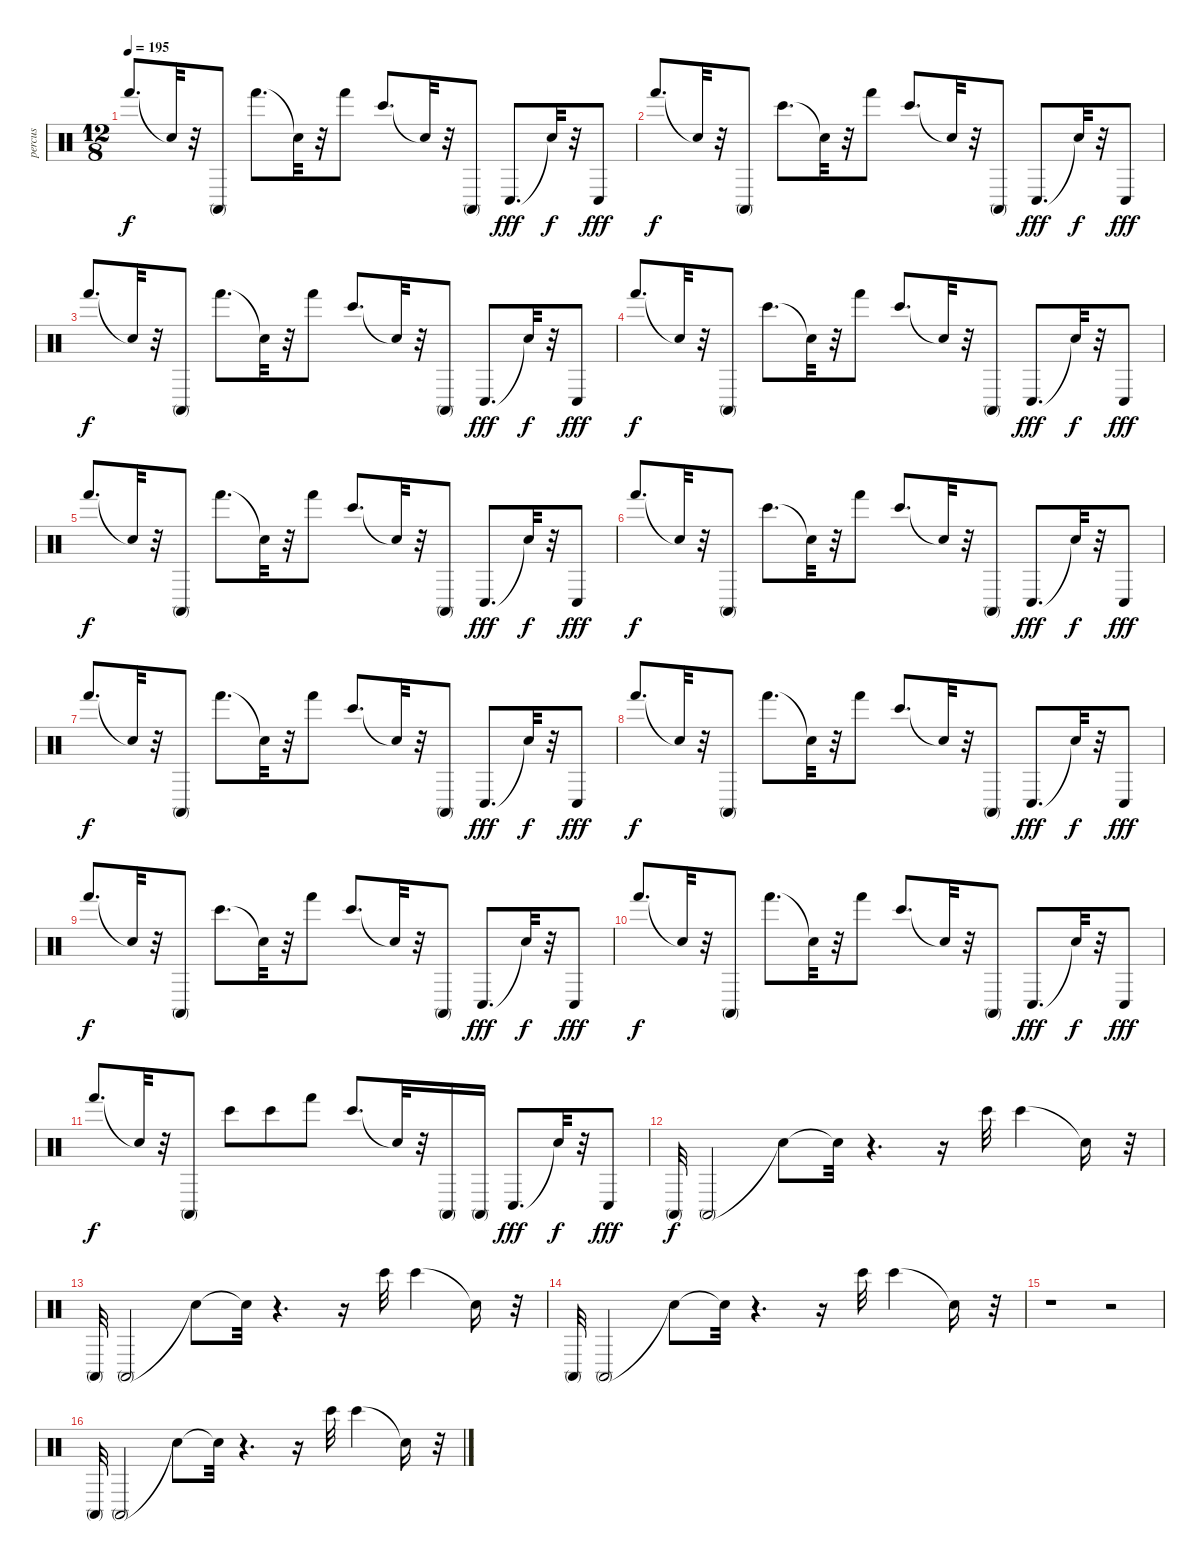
\track ("percus" "percus") {instrument percussion}
\staff {score}
\articulation defaults
\ts (12 8)
\tempo 195
\clef neutral
\ks c "Hand (hit)".8{d dy f} "Snare (hit)"{t}.32
r.32 "Conga high (mute)".8 "Hand (hit)".8{d} "Snare (hit)"{t}.32 r.32 "Hand (hit)".8 "Bongo High (hit)".8{d} "Snare (hit)"{t}.32 r.32 "Conga high (mute)".8 "Conga low (hit)".8{d dy fff} "Snare (hit)"{t}.32{dy f} r.32 "Conga low (hit)".8{dy fff} |
"Hand (hit)".8{d dy f} "Snare (hit)"{t}.32 r.32 "Conga high (mute)".8 "Bongo High (hit)".8{d} "Snare (hit)"{t}.32 r.32 "Hand (hit)".8 "Bongo High (hit)".8{d} "Snare (hit)"{t}.32 r.32 "Conga high (mute)".8 "Conga low (hit)".8{d dy fff} "Snare (hit)"{t}.32{dy f} r.32 "Conga low (hit)".8{dy fff} |
"Hand (hit)".8{d dy f} "Snare (hit)"{t}.32 r.32 "Conga high (mute)".8 "Hand (hit)".8{d} "Snare (hit)"{t}.32 r.32 "Hand (hit)".8 "Bongo High (hit)".8{d} "Snare (hit)"{t}.32 r.32 "Conga high (mute)".8 "Conga low (hit)".8{d dy fff} "Snare (hit)"{t}.32{dy f} r.32 "Conga low (hit)".8{dy fff} |
"Hand (hit)".8{d dy f} "Snare (hit)"{t}.32 r.32 "Conga high (mute)".8 "Bongo High (hit)".8{d} "Snare (hit)"{t}.32 r.32 "Hand (hit)".8 "Bongo High (hit)".8{d} "Snare (hit)"{t}.32 r.32 "Conga high (mute)".8 "Conga low (hit)".8{d dy fff} "Snare (hit)"{t}.32{dy f} r.32 "Conga low (hit)".8{dy fff} |
"Hand (hit)".8{d dy f} "Snare (hit)"{t}.32 r.32 "Conga high (mute)".8 "Hand (hit)".8{d} "Snare (hit)"{t}.32 r.32 "Hand (hit)".8 "Bongo High (hit)".8{d} "Snare (hit)"{t}.32 r.32 "Conga high (mute)".8 "Conga low (hit)".8{d dy fff} "Snare (hit)"{t}.32{dy f} r.32 "Conga low (hit)".8{dy fff} |
"Hand (hit)".8{d dy f} "Snare (hit)"{t}.32 r.32 "Conga high (mute)".8 "Bongo High (hit)".8{d} "Snare (hit)"{t}.32 r.32 "Hand (hit)".8 "Bongo High (hit)".8{d} "Snare (hit)"{t}.32 r.32 "Conga high (mute)".8 "Conga low (hit)".8{d dy fff} "Snare (hit)"{t}.32{dy f} r.32 "Conga low (hit)".8{dy fff} |
"Hand (hit)".8{d dy f} "Snare (hit)"{t}.32 r.32 "Conga high (mute)".8 "Hand (hit)".8{d} "Snare (hit)"{t}.32 r.32 "Hand (hit)".8 "Bongo High (hit)".8{d} "Snare (hit)"{t}.32 r.32 "Conga high (mute)".8 "Conga low (hit)".8{d dy fff} "Snare (hit)"{t}.32{dy f} r.32 "Conga low (hit)".8{dy fff} |
"Hand (hit)".8{d dy f} "Snare (hit)"{t}.32 r.32 "Conga high (mute)".8 "Hand (hit)".8{d} "Snare (hit)"{t}.32 r.32 "Hand (hit)".8 "Bongo High (hit)".8{d} "Snare (hit)"{t}.32 r.32 "Conga high (mute)".8 "Conga low (hit)".8{d dy fff} "Snare (hit)"{t}.32{dy f} r.32 "Conga low (hit)".8{dy fff} |
"Hand (hit)".8{d dy f} "Snare (hit)"{t}.32 r.32 "Conga high (mute)".8 "Bongo High (hit)".8{d} "Snare (hit)"{t}.32 r.32 "Hand (hit)".8 "Bongo High (hit)".8{d} "Snare (hit)"{t}.32 r.32 "Conga high (mute)".8 "Conga low (hit)".8{d dy fff} "Snare (hit)"{t}.32{dy f} r.32 "Conga low (hit)".8{dy fff} |
"Hand (hit)".8{d dy f} "Snare (hit)"{t}.32 r.32 "Conga high (mute)".8 "Hand (hit)".8{d} "Snare (hit)"{t}.32 r.32 "Hand (hit)".8 "Bongo High (hit)".8{d} "Snare (hit)"{t}.32 r.32 "Conga high (mute)".8 "Conga low (hit)".8{d dy fff} "Snare (hit)"{t}.32{dy f} r.32 "Conga low (hit)".8{dy fff} |
"Hand (hit)".8{d dy f} "Snare (hit)"{t}.32 r.32 "Conga high (mute)".8 "Bongo High (hit)".8 "Bongo High (hit)".8 "Hand (hit)".8 "Bongo High (hit)".8{d} "Snare (hit)"{t}.32 r.32 "Conga high (mute)".16 "Conga high (mute)".16 "Conga low (hit)".8{d dy fff} "Snare (hit)"{t}.32{dy f} r.32 "Conga low (hit)".8{dy fff} |
"Conga high (mute)".32{dy f} "Conga high (mute)".2 "Snare (hit)"{t}.8 "Snare (hit)"{t}.32 r.4{d} r.16 "Bongo High (hit)".32 "Bongo High (hit)".4 "Snare (hit)"{t}.16 r.32 |
"Conga high (mute)".32 "Conga high (mute)".2 "Snare (hit)"{t}.8 "Snare (hit)"{t}.32 r.4{d} r.16 "Bongo High (hit)".32 "Bongo High (hit)".4 "Snare (hit)"{t}.16 r.32 |
"Conga high (mute)".32 "Conga high (mute)".2 "Snare (hit)"{t}.8 "Snare (hit)"{t}.32 r.4{d} r.16 "Bongo High (hit)".32 "Bongo High (hit)".4 "Snare (hit)"{t}.16 r.32 |
r.1 r.2 |
"Conga high (mute)".32 "Conga high (mute)".2 "Snare (hit)"{t}.8 "Snare (hit)"{t}.32 r.4{d} r.16 "Bongo High (hit)".32 "Bongo High (hit)".4 "Snare (hit)"{t}.16 r.32
